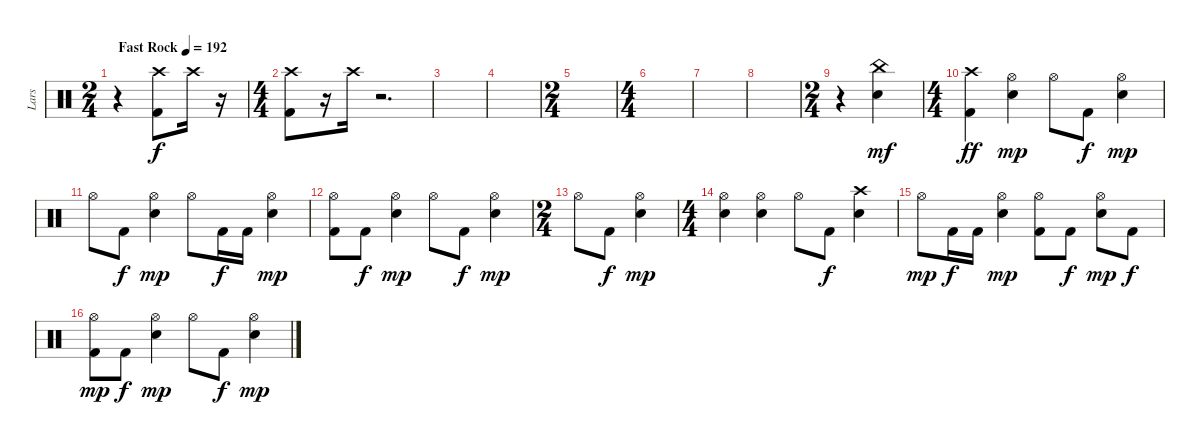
\track ("Lars" "Lars") {instrument percussion}
\staff {score}
\articulation defaults
\ts (2 4)
\tempo (192 "Fast Rock")
\clef neutral
\ks c
r.4{dy f} ("Crash high (hit)" "Kick (hit) 2").8 "Crash high (hit)".16{volume 0} r.16 |
\ts (4 4)
("Crash high (hit)" "Kick (hit) 2").8{volume 16} r.16 "Crash high (hit)".16{volume 0} r.2{d} |
|
|
\ts (2 4)
|
\ts (4 4)
|
|
|
\ts (2 4)
r.4 ("China (hit)" "Snare (hit) 2").4{dy mf volume 16} |
\ts (4 4)
("Crash high (hit)" "Kick (hit) 2").4{dy ff} ("Hi-Hat (open)" "Snare (hit) 2").4{dy mp} "Hi-Hat (open)".8 "Kick (hit) 2".8{dy f} ("Hi-Hat (open)" "Snare (hit) 2").4{dy mp} |
"Hi-Hat (open)".8 "Kick (hit) 2".8{dy f} ("Hi-Hat (open)" "Snare (hit) 2").4{dy mp} "Hi-Hat (open)".8 "Kick (hit) 2".16{dy f} "Kick (hit) 2".16 ("Hi-Hat (open)" "Snare (hit) 2").4{dy mp} |
("Hi-Hat (open)" "Kick (hit) 2").8 "Kick (hit) 2".8{dy f} ("Hi-Hat (open)" "Snare (hit) 2").4{dy mp} "Hi-Hat (open)".8 "Kick (hit) 2".8{dy f} ("Hi-Hat (open)" "Snare (hit) 2").4{dy mp} |
\ts (2 4)
"Hi-Hat (open)".8 "Kick (hit) 2".8{dy f} ("Hi-Hat (open)" "Snare (hit) 2").4{dy mp} |
\ts (4 4)
("Hi-Hat (open)" "Snare (hit) 2").4 ("Hi-Hat (open)" "Snare (hit) 2").4 "Hi-Hat (open)".8 "Kick (hit) 2".8{dy f} ("Crash high (hit)" "Snare (hit) 2").4 |
"Hi-Hat (open)".8{dy mp} "Kick (hit) 2".16{dy f} "Kick (hit) 2".16 ("Hi-Hat (open)" "Snare (hit) 2").4{dy mp} ("Hi-Hat (open)" "Kick (hit) 2").8 "Kick (hit) 2".8{dy f} ("Hi-Hat (open)" "Snare (hit) 2").8{dy mp} "Kick (hit) 2".8{dy f} |
("Hi-Hat (open)" "Kick (hit) 2").8{dy mp} "Kick (hit) 2".8{dy f} ("Hi-Hat (open)" "Snare (hit) 2").4{dy mp} "Hi-Hat (open)".8 "Kick (hit) 2".8{dy f} ("Hi-Hat (open)" "Snare (hit) 2").4{dy mp}
